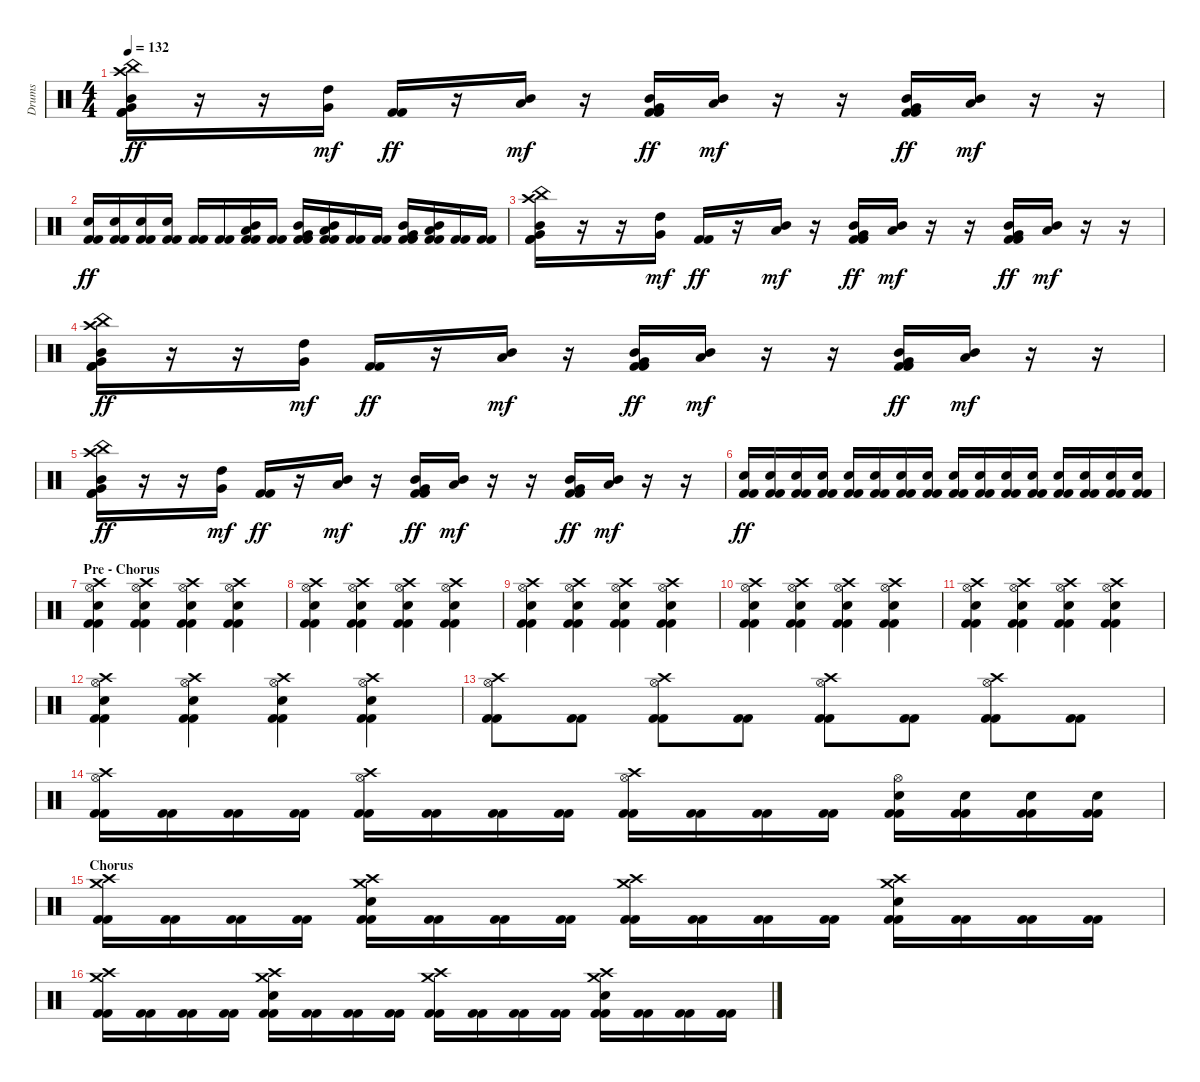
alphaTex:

\track ("Drums" "Drums") {instrument percussion}
\staff {score}
\articulation defaults
\ts (4 4)
\tempo 132
\clef neutral
\ks c
("China (hit)" "Mid Tom (hit)" "Very Low Tom (hit)" "Crash high (hit)" "Kick (hit) 2" "Kick (hit) 2").16{dy ff} r.16 r.16 ("High Tom (hit)" "Very Low Tom (hit)").16{dy mf} ("Kick (hit) 2" "Kick (hit) 2").16{dy ff} r.16 ("Mid Tom (hit)" "Low Tom (hit)").16{dy mf} r.16 ("Mid Tom (hit)" "Very Low Tom (hit)" "Kick (hit) 2" "Kick (hit) 2").16{dy ff} ("Low Tom (hit)" "Mid Tom (hit)").16{dy mf} r.16 r.16 ("Mid Tom (hit)" "Very Low Tom (hit)" "Kick (hit) 2" "Kick (hit) 2").16{dy ff} ("Mid Tom (hit)" "Low Tom (hit)").16{dy mf} r.16 r.16 |
("Electric Snare (hit)" "Kick (hit) 2" "Kick (hit) 2").16{dy ff} ("Electric Snare (hit)" "Kick (hit) 2" "Kick (hit) 2").16 ("Electric Snare (hit)" "Kick (hit) 2" "Kick (hit) 2").16 ("Electric Snare (hit)" "Kick (hit) 2" "Kick (hit) 2").16 ("Kick (hit) 2" "Kick (hit) 2").16 ("Kick (hit) 2" "Kick (hit) 2").16 ("Mid Tom (hit)" "Low Tom (hit)" "Kick (hit) 2" "Kick (hit) 2").16 ("Kick (hit) 2" "Kick (hit) 2").16 ("Mid Tom (hit)" "Very Low Tom (hit)" "Kick (hit) 2" "Kick (hit) 2").16 ("Low Tom (hit)" "Mid Tom (hit)" "Kick (hit) 2" "Kick (hit) 2").16 ("Kick (hit) 2" "Kick (hit) 2").16 ("Kick (hit) 2" "Kick (hit) 2").16 ("Mid Tom (hit)" "Very Low Tom (hit)" "Kick (hit) 2" "Kick (hit) 2").16 ("Mid Tom (hit)" "Low Tom (hit)" "Kick (hit) 2" "Kick (hit) 2").16 ("Kick (hit) 2" "Kick (hit) 2").16 ("Kick (hit) 2" "Kick (hit) 2").16 |
("China (hit)" "Mid Tom (hit)" "Very Low Tom (hit)" "Crash high (hit)" "Kick (hit) 2" "Kick (hit) 2").16 r.16 r.16 ("High Tom (hit)" "Very Low Tom (hit)").16{dy mf} ("Kick (hit) 2" "Kick (hit) 2").16{dy ff} r.16 ("Mid Tom (hit)" "Low Tom (hit)").16{dy mf} r.16 ("Mid Tom (hit)" "Very Low Tom (hit)" "Kick (hit) 2" "Kick (hit) 2").16{dy ff} ("Low Tom (hit)" "Mid Tom (hit)").16{dy mf} r.16 r.16 ("Mid Tom (hit)" "Very Low Tom (hit)" "Kick (hit) 2" "Kick (hit) 2").16{dy ff} ("Mid Tom (hit)" "Low Tom (hit)").16{dy mf} r.16 r.16 |
("China (hit)" "Mid Tom (hit)" "Very Low Tom (hit)" "Crash high (hit)" "Kick (hit) 2" "Kick (hit) 2").16{dy ff} r.16 r.16 ("High Tom (hit)" "Very Low Tom (hit)").16{dy mf} ("Kick (hit) 2" "Kick (hit) 2").16{dy ff} r.16 ("Mid Tom (hit)" "Low Tom (hit)").16{dy mf} r.16 ("Mid Tom (hit)" "Very Low Tom (hit)" "Kick (hit) 2" "Kick (hit) 2").16{dy ff} ("Low Tom (hit)" "Mid Tom (hit)").16{dy mf} r.16 r.16 ("Mid Tom (hit)" "Very Low Tom (hit)" "Kick (hit) 2" "Kick (hit) 2").16{dy ff} ("Mid Tom (hit)" "Low Tom (hit)").16{dy mf} r.16 r.16 |
("China (hit)" "Mid Tom (hit)" "Very Low Tom (hit)" "Crash high (hit)" "Kick (hit) 2" "Kick (hit) 2").16{dy ff} r.16 r.16 ("High Tom (hit)" "Very Low Tom (hit)").16{dy mf} ("Kick (hit) 2" "Kick (hit) 2").16{dy ff} r.16 ("Mid Tom (hit)" "Low Tom (hit)").16{dy mf} r.16 ("Mid Tom (hit)" "Very Low Tom (hit)" "Kick (hit) 2" "Kick (hit) 2").16{dy ff} ("Low Tom (hit)" "Mid Tom (hit)").16{dy mf} r.16 r.16 ("Mid Tom (hit)" "Very Low Tom (hit)" "Kick (hit) 2" "Kick (hit) 2").16{dy ff} ("Mid Tom (hit)" "Low Tom (hit)").16{dy mf} r.16 r.16 |
("Electric Snare (hit)" "Kick (hit) 2" "Kick (hit) 2").16{dy ff} ("Electric Snare (hit)" "Kick (hit) 2" "Kick (hit) 2").16 ("Electric Snare (hit)" "Kick (hit) 2" "Kick (hit) 2").16 ("Electric Snare (hit)" "Kick (hit) 2" "Kick (hit) 2").16 ("Electric Snare (hit)" "Kick (hit) 2" "Kick (hit) 2").16 ("Electric Snare (hit)" "Kick (hit) 2" "Kick (hit) 2").16 ("Electric Snare (hit)" "Kick (hit) 2" "Kick (hit) 2").16 ("Electric Snare (hit)" "Kick (hit) 2" "Kick (hit) 2").16 ("Electric Snare (hit)" "Kick (hit) 2" "Kick (hit) 2").16 ("Electric Snare (hit)" "Kick (hit) 2" "Kick (hit) 2").16 ("Electric Snare (hit)" "Kick (hit) 2" "Kick (hit) 2").16 ("Electric Snare (hit)" "Kick (hit) 2" "Kick (hit) 2").16 ("Electric Snare (hit)" "Kick (hit) 2" "Kick (hit) 2").16 ("Electric Snare (hit)" "Kick (hit) 2" "Kick (hit) 2").16 ("Electric Snare (hit)" "Kick (hit) 2" "Kick (hit) 2").16 ("Electric Snare (hit)" "Kick (hit) 2" "Kick (hit) 2").16 |
\section ("" "Pre - Chorus")
("Hi-Hat (open)" "Electric Snare (hit)" "Crash high (hit)" "Kick (hit) 2" "Kick (hit) 2").4 ("Hi-Hat (open)" "Electric Snare (hit)" "Crash high (hit)" "Kick (hit) 2" "Kick (hit) 2").4 ("Hi-Hat (open)" "Electric Snare (hit)" "Crash high (hit)" "Kick (hit) 2" "Kick (hit) 2").4 ("Hi-Hat (open)" "Electric Snare (hit)" "Crash high (hit)" "Kick (hit) 2" "Kick (hit) 2").4 |
("Hi-Hat (open)" "Electric Snare (hit)" "Crash high (hit)" "Kick (hit) 2" "Kick (hit) 2").4 ("Hi-Hat (open)" "Electric Snare (hit)" "Crash high (hit)" "Kick (hit) 2" "Kick (hit) 2").4 ("Hi-Hat (open)" "Electric Snare (hit)" "Crash high (hit)" "Kick (hit) 2" "Kick (hit) 2").4 ("Hi-Hat (open)" "Electric Snare (hit)" "Crash high (hit)" "Kick (hit) 2" "Kick (hit) 2").4 |
("Hi-Hat (open)" "Electric Snare (hit)" "Crash high (hit)" "Kick (hit) 2" "Kick (hit) 2").4 ("Hi-Hat (open)" "Electric Snare (hit)" "Crash high (hit)" "Kick (hit) 2" "Kick (hit) 2").4 ("Hi-Hat (open)" "Electric Snare (hit)" "Crash high (hit)" "Kick (hit) 2" "Kick (hit) 2").4 ("Hi-Hat (open)" "Electric Snare (hit)" "Crash high (hit)" "Kick (hit) 2" "Kick (hit) 2").4 |
("Hi-Hat (open)" "Electric Snare (hit)" "Crash high (hit)" "Kick (hit) 2" "Kick (hit) 2").4 ("Hi-Hat (open)" "Electric Snare (hit)" "Crash high (hit)" "Kick (hit) 2" "Kick (hit) 2").4 ("Hi-Hat (open)" "Electric Snare (hit)" "Crash high (hit)" "Kick (hit) 2" "Kick (hit) 2").4 ("Hi-Hat (open)" "Electric Snare (hit)" "Crash high (hit)" "Kick (hit) 2" "Kick (hit) 2").4 |
("Hi-Hat (open)" "Electric Snare (hit)" "Crash high (hit)" "Kick (hit) 2" "Kick (hit) 2").4 ("Hi-Hat (open)" "Electric Snare (hit)" "Crash high (hit)" "Kick (hit) 2" "Kick (hit) 2").4 ("Hi-Hat (open)" "Electric Snare (hit)" "Crash high (hit)" "Kick (hit) 2" "Kick (hit) 2").4 ("Hi-Hat (open)" "Electric Snare (hit)" "Crash high (hit)" "Kick (hit) 2" "Kick (hit) 2").4 |
("Hi-Hat (open)" "Electric Snare (hit)" "Crash high (hit)" "Kick (hit) 2" "Kick (hit) 2").4 ("Hi-Hat (open)" "Electric Snare (hit)" "Crash high (hit)" "Kick (hit) 2" "Kick (hit) 2").4 ("Hi-Hat (open)" "Electric Snare (hit)" "Crash high (hit)" "Kick (hit) 2" "Kick (hit) 2").4 ("Hi-Hat (open)" "Electric Snare (hit)" "Crash high (hit)" "Kick (hit) 2" "Kick (hit) 2").4 |
("Hi-Hat (open)" "Crash high (hit)" "Kick (hit) 2" "Kick (hit) 2").8 ("Kick (hit) 2" "Kick (hit) 2").8 ("Hi-Hat (open)" "Crash high (hit)" "Kick (hit) 2" "Kick (hit) 2").8 ("Kick (hit) 2" "Kick (hit) 2").8 ("Hi-Hat (open)" "Crash high (hit)" "Kick (hit) 2" "Kick (hit) 2").8 ("Kick (hit) 2" "Kick (hit) 2").8 ("Hi-Hat (open)" "Crash high (hit)" "Kick (hit) 2" "Kick (hit) 2").8 ("Kick (hit) 2" "Kick (hit) 2").8 |
("Hi-Hat (open)" "Crash high (hit)" "Kick (hit) 2" "Kick (hit) 2").16 ("Kick (hit) 2" "Kick (hit) 2").16 ("Kick (hit) 2" "Kick (hit) 2").16 ("Kick (hit) 2" "Kick (hit) 2").16 ("Hi-Hat (open)" "Crash high (hit)" "Kick (hit) 2" "Kick (hit) 2").16 ("Kick (hit) 2" "Kick (hit) 2").16 ("Kick (hit) 2" "Kick (hit) 2").16 ("Kick (hit) 2" "Kick (hit) 2").16 ("Hi-Hat (open)" "Crash high (hit)" "Kick (hit) 2" "Kick (hit) 2").16 ("Kick (hit) 2" "Kick (hit) 2").16 ("Kick (hit) 2" "Kick (hit) 2").16 ("Kick (hit) 2" "Kick (hit) 2").16 ("Hi-Hat (open)" "Electric Snare (hit)" "Kick (hit) 2" "Kick (hit) 2").16 ("Electric Snare (hit)" "Kick (hit) 2" "Kick (hit) 2").16 ("Electric Snare (hit)" "Kick (hit) 2" "Kick (hit) 2").16 ("Electric Snare (hit)" "Kick (hit) 2" "Kick (hit) 2").16 |
\section ("" "Chorus")
("Crash high (hit)" "Crash medium (hit)" "Kick (hit) 2" "Kick (hit) 2").16 ("Kick (hit) 2" "Kick (hit) 2").16 ("Kick (hit) 2" "Kick (hit) 2").16 ("Kick (hit) 2" "Kick (hit) 2").16 ("Crash high (hit)" "Crash medium (hit)" "Electric Snare (hit)" "Kick (hit) 2" "Kick (hit) 2").16 ("Kick (hit) 2" "Kick (hit) 2").16 ("Kick (hit) 2" "Kick (hit) 2").16 ("Kick (hit) 2" "Kick (hit) 2").16 ("Crash high (hit)" "Crash medium (hit)" "Kick (hit) 2" "Kick (hit) 2").16 ("Kick (hit) 2" "Kick (hit) 2").16 ("Kick (hit) 2" "Kick (hit) 2").16 ("Kick (hit) 2" "Kick (hit) 2").16 ("Crash high (hit)" "Crash medium (hit)" "Electric Snare (hit)" "Kick (hit) 2" "Kick (hit) 2").16 ("Kick (hit) 2" "Kick (hit) 2").16 ("Kick (hit) 2" "Kick (hit) 2").16 ("Kick (hit) 2" "Kick (hit) 2").16 |
("Crash high (hit)" "Crash medium (hit)" "Kick (hit) 2" "Kick (hit) 2").16 ("Kick (hit) 2" "Kick (hit) 2").16 ("Kick (hit) 2" "Kick (hit) 2").16 ("Kick (hit) 2" "Kick (hit) 2").16 ("Crash high (hit)" "Crash medium (hit)" "Electric Snare (hit)" "Kick (hit) 2" "Kick (hit) 2").16 ("Kick (hit) 2" "Kick (hit) 2").16 ("Kick (hit) 2" "Kick (hit) 2").16 ("Kick (hit) 2" "Kick (hit) 2").16 ("Crash high (hit)" "Crash medium (hit)" "Kick (hit) 2" "Kick (hit) 2").16 ("Kick (hit) 2" "Kick (hit) 2").16 ("Kick (hit) 2" "Kick (hit) 2").16 ("Kick (hit) 2" "Kick (hit) 2").16 ("Crash high (hit)" "Crash medium (hit)" "Electric Snare (hit)" "Kick (hit) 2" "Kick (hit) 2").16 ("Kick (hit) 2" "Kick (hit) 2").16 ("Kick (hit) 2" "Kick (hit) 2").16 ("Kick (hit) 2" "Kick (hit) 2").16
